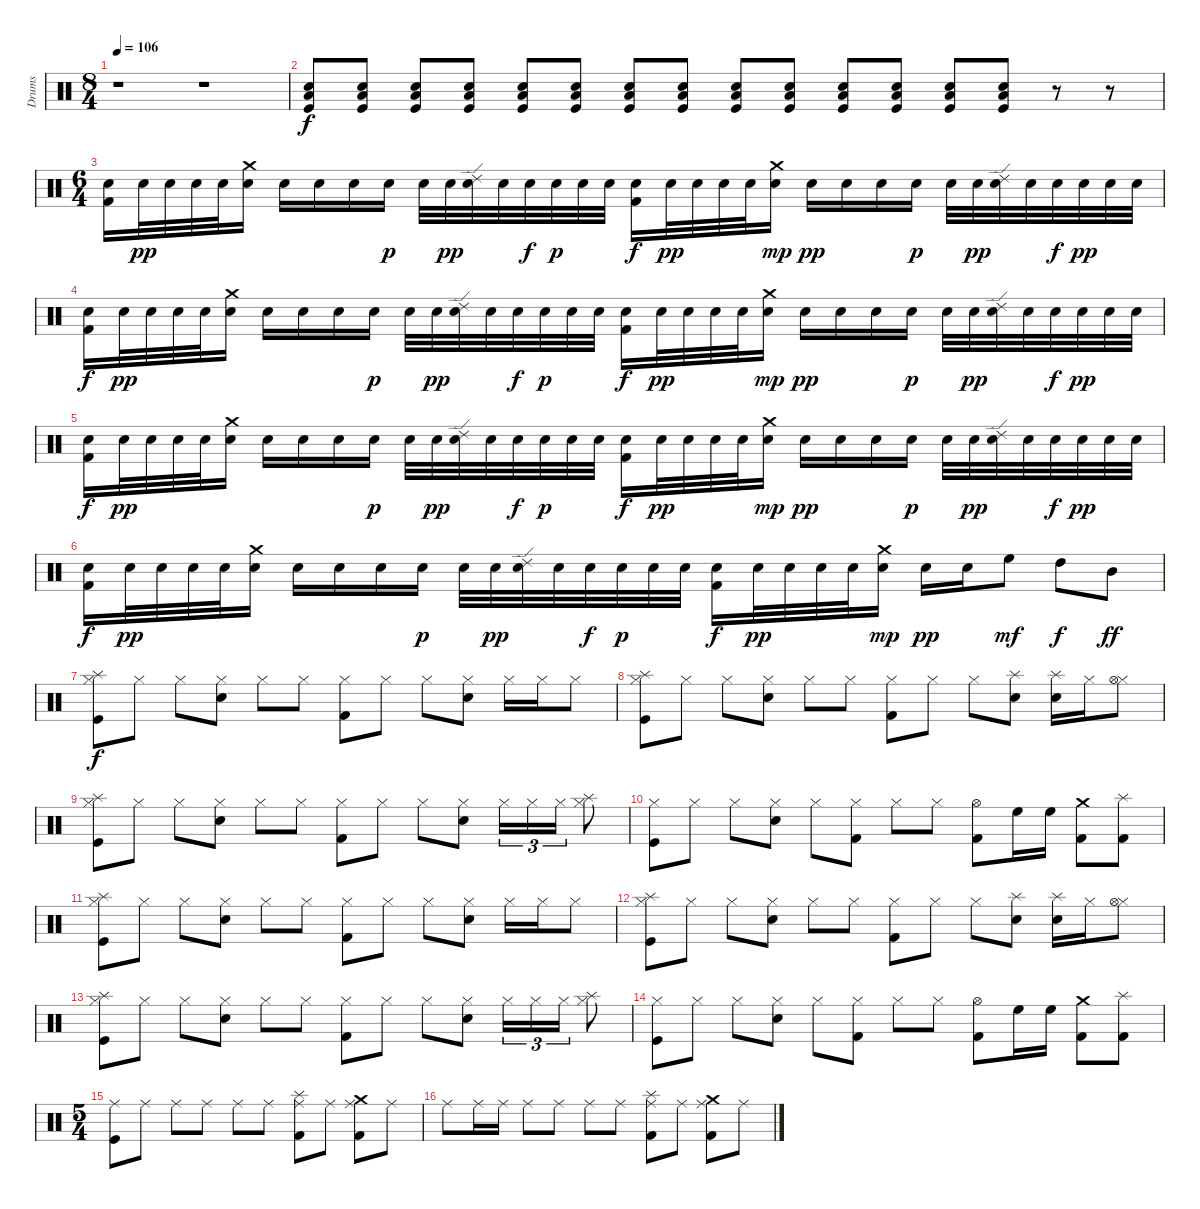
\track ("Drums" "Drums") {instrument percussion}
\staff {score}
\articulation defaults
\ts (8 4)
\tempo 106
\clef neutral
\ks c
r.1{dy f} r.1 |
("Electric Snare (hit)" "Low Floor Tom (hit)" "Kick (hit)").8{volume 6} ("Electric Snare (hit)" "Low Floor Tom (hit)" "Kick (hit)").8 ("Electric Snare (hit)" "Low Floor Tom (hit)" "Kick (hit)").8{volume 7} ("Electric Snare (hit)" "Low Floor Tom (hit)" "Kick (hit)").8 ("Electric Snare (hit)" "Low Floor Tom (hit)" "Kick (hit)").8{volume 8} ("Electric Snare (hit)" "Low Floor Tom (hit)" "Kick (hit)").8 ("Electric Snare (hit)" "Low Floor Tom (hit)" "Kick (hit)").8{volume 9} ("Electric Snare (hit)" "Low Floor Tom (hit)" "Kick (hit)").8 ("Electric Snare (hit)" "Low Floor Tom (hit)" "Kick (hit)").8{volume 10} ("Electric Snare (hit)" "Low Floor Tom (hit)" "Kick (hit)").8 ("Electric Snare (hit)" "Low Floor Tom (hit)" "Kick (hit)").8{volume 11} ("Electric Snare (hit)" "Low Floor Tom (hit)" "Kick (hit)").8 ("Electric Snare (hit)" "Low Floor Tom (hit)" "Kick (hit)").8{volume 13} ("Electric Snare (hit)" "Low Floor Tom (hit)" "Kick (hit)").8 r.8{volume 13} r.8 |
\ts (6 4)
("Electric Snare (hit)" "Kick (hit) 2").16 "Electric Snare (hit)".32{dy pp} "Electric Snare (hit)".32 "Electric Snare (hit)".32 "Electric Snare (hit)".32 ("Crash medium (hit)" "Electric Snare (hit)").16 "Electric Snare (hit)".16 "Electric Snare (hit)".16 "Electric Snare (hit)".16 "Electric Snare (hit)".16{dy p} "Electric Snare (hit)".32 "Electric Snare (hit)".32{dy pp} ("Ride (edge) 2" "Electric Snare (hit)").32 "Electric Snare (hit)".32 "Electric Snare (hit)".32{dy f} "Electric Snare (hit)".32{dy p} "Electric Snare (hit)".32 "Electric Snare (hit)".32 ("Electric Snare (hit)" "Kick (hit) 2").16{dy f} "Electric Snare (hit)".32{dy pp} "Electric Snare (hit)".32 "Electric Snare (hit)".32 "Electric Snare (hit)".32 ("Crash medium (hit)" "Electric Snare (hit)").16{dy mp} "Electric Snare (hit)".16{dy pp} "Electric Snare (hit)".16 "Electric Snare (hit)".16 "Electric Snare (hit)".16{dy p} "Electric Snare (hit)".32 "Electric Snare (hit)".32{dy pp} ("Ride (edge) 2" "Electric Snare (hit)").32 "Electric Snare (hit)".32 "Electric Snare (hit)".32{dy f} "Electric Snare (hit)".32{dy pp} "Electric Snare (hit)".32 "Electric Snare (hit)".32 |
("Electric Snare (hit)" "Kick (hit) 2").16{dy f} "Electric Snare (hit)".32{dy pp} "Electric Snare (hit)".32 "Electric Snare (hit)".32 "Electric Snare (hit)".32 ("Crash medium (hit)" "Electric Snare (hit)").16 "Electric Snare (hit)".16 "Electric Snare (hit)".16 "Electric Snare (hit)".16 "Electric Snare (hit)".16{dy p} "Electric Snare (hit)".32 "Electric Snare (hit)".32{dy pp} ("Ride (edge) 2" "Electric Snare (hit)").32 "Electric Snare (hit)".32 "Electric Snare (hit)".32{dy f} "Electric Snare (hit)".32{dy p} "Electric Snare (hit)".32 "Electric Snare (hit)".32 ("Electric Snare (hit)" "Kick (hit) 2").16{dy f} "Electric Snare (hit)".32{dy pp} "Electric Snare (hit)".32 "Electric Snare (hit)".32 "Electric Snare (hit)".32 ("Crash medium (hit)" "Electric Snare (hit)").16{dy mp} "Electric Snare (hit)".16{dy pp} "Electric Snare (hit)".16 "Electric Snare (hit)".16 "Electric Snare (hit)".16{dy p} "Electric Snare (hit)".32 "Electric Snare (hit)".32{dy pp} ("Ride (edge) 2" "Electric Snare (hit)").32 "Electric Snare (hit)".32 "Electric Snare (hit)".32{dy f} "Electric Snare (hit)".32{dy pp} "Electric Snare (hit)".32 "Electric Snare (hit)".32 |
("Electric Snare (hit)" "Kick (hit) 2").16{dy f} "Electric Snare (hit)".32{dy pp} "Electric Snare (hit)".32 "Electric Snare (hit)".32 "Electric Snare (hit)".32 ("Crash medium (hit)" "Electric Snare (hit)").16 "Electric Snare (hit)".16 "Electric Snare (hit)".16 "Electric Snare (hit)".16 "Electric Snare (hit)".16{dy p} "Electric Snare (hit)".32 "Electric Snare (hit)".32{dy pp} ("Ride (edge) 2" "Electric Snare (hit)").32 "Electric Snare (hit)".32 "Electric Snare (hit)".32{dy f} "Electric Snare (hit)".32{dy p} "Electric Snare (hit)".32 "Electric Snare (hit)".32 ("Electric Snare (hit)" "Kick (hit) 2").16{dy f} "Electric Snare (hit)".32{dy pp} "Electric Snare (hit)".32 "Electric Snare (hit)".32 "Electric Snare (hit)".32 ("Crash medium (hit)" "Electric Snare (hit)").16{dy mp} "Electric Snare (hit)".16{dy pp} "Electric Snare (hit)".16 "Electric Snare (hit)".16 "Electric Snare (hit)".16{dy p} "Electric Snare (hit)".32 "Electric Snare (hit)".32{dy pp} ("Ride (edge) 2" "Electric Snare (hit)").32 "Electric Snare (hit)".32 "Electric Snare (hit)".32{dy f} "Electric Snare (hit)".32{dy pp} "Electric Snare (hit)".32 "Electric Snare (hit)".32 |
("Electric Snare (hit)" "Kick (hit) 2").16{dy f} "Electric Snare (hit)".32{dy pp} "Electric Snare (hit)".32 "Electric Snare (hit)".32 "Electric Snare (hit)".32 ("Crash medium (hit)" "Electric Snare (hit)").16 "Electric Snare (hit)".16 "Electric Snare (hit)".16 "Electric Snare (hit)".16 "Electric Snare (hit)".16{dy p} "Electric Snare (hit)".32 "Electric Snare (hit)".32{dy pp} ("Ride (edge) 2" "Electric Snare (hit)").32 "Electric Snare (hit)".32 "Electric Snare (hit)".32{dy f} "Electric Snare (hit)".32{dy p} "Electric Snare (hit)".32 "Electric Snare (hit)".32 ("Electric Snare (hit)" "Kick (hit) 2").16{dy f} "Electric Snare (hit)".32{dy pp} "Electric Snare (hit)".32 "Electric Snare (hit)".32 "Electric Snare (hit)".32 ("Crash medium (hit)" "Electric Snare (hit)").16{dy mp} "Electric Snare (hit)".16{dy pp} "Electric Snare (hit)".16 "High Floor Tom (hit)".8{dy mf} "High Tom (hit)".8{dy f} "Mid Tom (hit)".8{dy ff} |
("Hi-Hat (closed)" "Splash (hit)" "Kick (hit)").8{dy f} "Hi-Hat (closed)".8 "Hi-Hat (closed)".8 ("Hi-Hat (closed)" "Electric Snare (hit)").8 "Hi-Hat (closed)".8 "Hi-Hat (closed)".8 ("Hi-Hat (closed)" "Kick (hit) 2").8 "Hi-Hat (closed)".8 "Hi-Hat (closed)".8 ("Hi-Hat (closed)" "Electric Snare (hit)").8 "Hi-Hat (closed)".16 "Hi-Hat (closed)".16 "Hi-Hat (closed)".8 |
("Hi-Hat (closed)" "Splash (hit)" "Kick (hit)").8 "Hi-Hat (closed)".8 "Hi-Hat (closed)".8 ("Hi-Hat (closed)" "Electric Snare (hit)").8 "Hi-Hat (closed)".8 "Hi-Hat (closed)".8 ("Hi-Hat (closed)" "Kick (hit) 2").8 "Hi-Hat (closed)".8 "Hi-Hat (closed)".8 ("Splash (hit)" "Electric Snare (hit)").8 ("Splash (hit)" "Electric Snare (hit)").16 "Hi-Hat (closed)".16 ("Hi-Hat (closed)" "Hi-Hat (open)").8 |
("Hi-Hat (closed)" "Splash (hit)" "Kick (hit)").8 "Hi-Hat (closed)".8 "Hi-Hat (closed)".8 ("Hi-Hat (closed)" "Electric Snare (hit)").8 "Hi-Hat (closed)".8 "Hi-Hat (closed)".8 ("Hi-Hat (closed)" "Kick (hit) 2").8 "Hi-Hat (closed)".8 "Hi-Hat (closed)".8 ("Hi-Hat (closed)" "Electric Snare (hit)").8 "Hi-Hat (closed)".16{tu (3 2)} "Hi-Hat (closed)".16{tu (3 2)} "Hi-Hat (closed)".16{tu (3 2)} ("Hi-Hat (closed)" "Splash (hit)").8 |
("Hi-Hat (closed)" "Kick (hit)").8 "Hi-Hat (closed)".8 "Hi-Hat (closed)".8 ("Hi-Hat (closed)" "Electric Snare (hit)").8 "Hi-Hat (closed)".8 ("Hi-Hat (closed)" "Kick (hit) 2").8 "Hi-Hat (closed)".8 "Hi-Hat (closed)".8 ("Hi-Hat (open)" "Kick (hit) 2").8 "High Floor Tom (hit)".16 "High Floor Tom (hit)".16 ("Crash medium (hit)" "Kick (hit) 2").8 ("Splash (hit)" "Kick (hit) 2").8 |
("Hi-Hat (closed)" "Splash (hit)" "Kick (hit)").8 "Hi-Hat (closed)".8 "Hi-Hat (closed)".8 ("Hi-Hat (closed)" "Electric Snare (hit)").8 "Hi-Hat (closed)".8 "Hi-Hat (closed)".8 ("Hi-Hat (closed)" "Kick (hit) 2").8 "Hi-Hat (closed)".8 "Hi-Hat (closed)".8 ("Hi-Hat (closed)" "Electric Snare (hit)").8 "Hi-Hat (closed)".16 "Hi-Hat (closed)".16 "Hi-Hat (closed)".8 |
("Hi-Hat (closed)" "Splash (hit)" "Kick (hit)").8 "Hi-Hat (closed)".8 "Hi-Hat (closed)".8 ("Hi-Hat (closed)" "Electric Snare (hit)").8 "Hi-Hat (closed)".8 "Hi-Hat (closed)".8 ("Hi-Hat (closed)" "Kick (hit) 2").8 "Hi-Hat (closed)".8 "Hi-Hat (closed)".8 ("Splash (hit)" "Electric Snare (hit)").8 ("Splash (hit)" "Electric Snare (hit)").16 "Hi-Hat (closed)".16 ("Hi-Hat (closed)" "Hi-Hat (open)").8 |
("Hi-Hat (closed)" "Splash (hit)" "Kick (hit)").8 "Hi-Hat (closed)".8 "Hi-Hat (closed)".8 ("Hi-Hat (closed)" "Electric Snare (hit)").8 "Hi-Hat (closed)".8 "Hi-Hat (closed)".8 ("Hi-Hat (closed)" "Kick (hit) 2").8 "Hi-Hat (closed)".8 "Hi-Hat (closed)".8 ("Hi-Hat (closed)" "Electric Snare (hit)").8 "Hi-Hat (closed)".16{tu (3 2)} "Hi-Hat (closed)".16{tu (3 2)} "Hi-Hat (closed)".16{tu (3 2)} ("Hi-Hat (closed)" "Splash (hit)").8 |
("Hi-Hat (closed)" "Kick (hit)").8 "Hi-Hat (closed)".8 "Hi-Hat (closed)".8 ("Hi-Hat (closed)" "Electric Snare (hit)").8 "Hi-Hat (closed)".8 ("Hi-Hat (closed)" "Kick (hit) 2").8 "Hi-Hat (closed)".8 "Hi-Hat (closed)".8 ("Hi-Hat (open)" "Kick (hit) 2").8 "High Floor Tom (hit)".16 "High Floor Tom (hit)".16 ("Crash medium (hit)" "Kick (hit) 2").8 ("Splash (hit)" "Kick (hit) 2").8 |
\ts (5 4)
("Ride (middle)" "Kick (hit)").8 "Ride (middle)".8 "Ride (middle)".8 "Ride (middle)".8 "Ride (middle)".8 "Ride (middle)".8 ("Ride (middle)" "Splash (hit)" "Kick (hit) 2").8 "Ride (middle)".8 ("Ride (middle)" "Crash medium (hit)" "Kick (hit) 2").8 "Ride (middle)".8 |
"Ride (middle)".8 "Ride (middle)".16 "Ride (middle)".16 "Ride (middle)".8 "Ride (middle)".8 "Ride (middle)".8 "Ride (middle)".8 ("Ride (middle)" "Splash (hit)" "Kick (hit) 2").8 "Ride (middle)".8 ("Ride (middle)" "Crash medium (hit)" "Kick (hit) 2").8 "Ride (middle)".8
